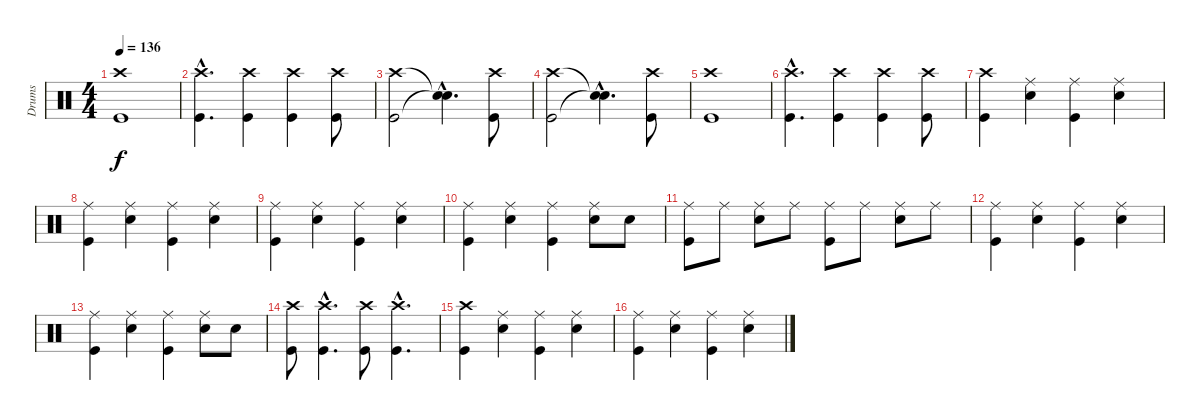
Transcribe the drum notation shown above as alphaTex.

\track ("Drums" "Drums") {instrument percussion}
\staff {score}
\articulation defaults
\ts (4 4)
\tempo 136
\clef neutral
\ks c
("Crash high (hit)" "Kick (hit)").1{dy f} |
("Crash high (hit)"{hac} "Kick (hit)"{hac}).4{d} ("Crash high (hit)" "Kick (hit)").4 ("Crash high (hit)" "Kick (hit)").4 ("Crash high (hit)" "Kick (hit)").8 |
("Crash high (hit)" "Kick (hit)").2 ("Snare (hit)"{hac t} "Snare (hit)"{hac t}).4{d} ("Crash high (hit)" "Kick (hit)").8 |
("Crash high (hit)" "Kick (hit)").2 ("Snare (hit)"{hac t} "Snare (hit)"{hac t}).4{d} ("Crash high (hit)" "Kick (hit)").8 |
("Crash high (hit)" "Kick (hit)").1 |
("Crash high (hit)"{hac} "Kick (hit)"{hac}).4{d} ("Crash high (hit)" "Kick (hit)").4 ("Crash high (hit)" "Kick (hit)").4 ("Crash high (hit)" "Kick (hit)").8 |
("Crash high (hit)" "Kick (hit)").4 ("Ride (middle)" "Snare (hit) 2").4 ("Ride (middle)" "Kick (hit)").4 ("Ride (middle)" "Snare (hit) 2").4 |
("Ride (middle)" "Kick (hit)").4 ("Ride (middle)" "Snare (hit) 2").4 ("Ride (middle)" "Kick (hit)").4 ("Ride (middle)" "Snare (hit) 2").4 |
("Ride (middle)" "Kick (hit)").4 ("Ride (middle)" "Snare (hit) 2").4 ("Ride (middle)" "Kick (hit)").4 ("Ride (middle)" "Snare (hit) 2").4 |
("Ride (middle)" "Kick (hit)").4 ("Ride (middle)" "Snare (hit) 2").4 ("Ride (middle)" "Kick (hit)").4 ("Ride (middle)" "Snare (hit) 2").8 "Snare (hit) 2".8 |
("Ride (middle)" "Kick (hit)").8 "Ride (middle)".8 ("Ride (middle)" "Snare (hit) 2").8 "Ride (middle)".8 ("Ride (middle)" "Kick (hit)").8 "Ride (middle)".8 ("Ride (middle)" "Snare (hit) 2").8 "Ride (middle)".8 |
("Ride (middle)" "Kick (hit)").4 ("Ride (middle)" "Snare (hit) 2").4 ("Ride (middle)" "Kick (hit)").4 ("Ride (middle)" "Snare (hit) 2").4 |
("Ride (middle)" "Kick (hit)").4 ("Ride (middle)" "Snare (hit) 2").4 ("Ride (middle)" "Kick (hit)").4 ("Ride (middle)" "Snare (hit) 2").8 "Snare (hit) 2".8 |
("Crash high (hit)" "Kick (hit)").8 ("Crash high (hit)"{hac} "Kick (hit)"{hac}).4{d} ("Crash high (hit)" "Kick (hit)").8 ("Crash high (hit)"{hac} "Kick (hit)"{hac}).4{d} |
("Crash high (hit)" "Kick (hit)").4 ("Ride (middle)" "Snare (hit) 2").4 ("Ride (middle)" "Kick (hit)").4 ("Ride (middle)" "Snare (hit) 2").4 |
("Ride (middle)" "Kick (hit)").4 ("Ride (middle)" "Snare (hit) 2").4 ("Ride (middle)" "Kick (hit)").4 ("Ride (middle)" "Snare (hit) 2").4
